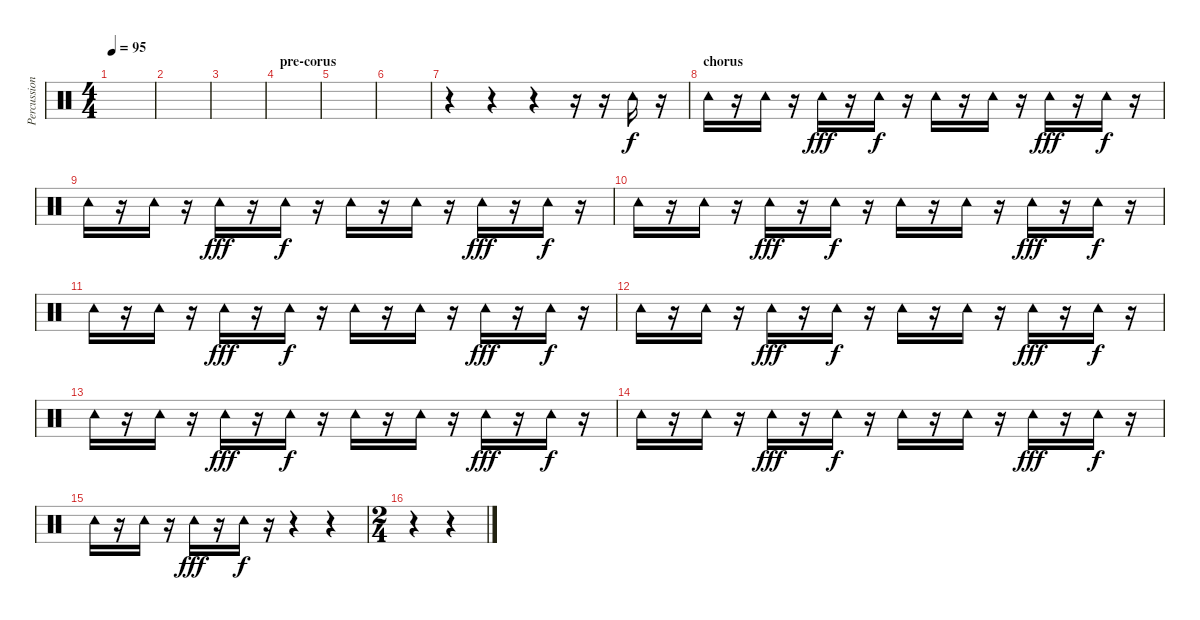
\track ("Percussion" "Percussion") {instrument percussion}
\staff {score}
\articulation defaults
\ts (4 4)
\tempo 95
\clef neutral
\ks c
|
|
|
\section ("" "pre-corus")
|
|
|
r.4 r.4 r.4 r.16 r.16 "Tambourine (hit)".16 r.16 |
\section ("" "chorus")
"Tambourine (hit)".16{dy f} r.16 "Tambourine (hit)".16 r.16 "Tambourine (hit)".16{dy fff} r.16 "Tambourine (hit)".16{dy f} r.16 "Tambourine (hit)".16 r.16 "Tambourine (hit)".16 r.16 "Tambourine (hit)".16{dy fff} r.16 "Tambourine (hit)".16{dy f} r.16 |
"Tambourine (hit)".16 r.16 "Tambourine (hit)".16 r.16 "Tambourine (hit)".16{dy fff} r.16 "Tambourine (hit)".16{dy f} r.16 "Tambourine (hit)".16 r.16 "Tambourine (hit)".16 r.16 "Tambourine (hit)".16{dy fff} r.16 "Tambourine (hit)".16{dy f} r.16 |
"Tambourine (hit)".16 r.16 "Tambourine (hit)".16 r.16 "Tambourine (hit)".16{dy fff} r.16 "Tambourine (hit)".16{dy f} r.16 "Tambourine (hit)".16 r.16 "Tambourine (hit)".16 r.16 "Tambourine (hit)".16{dy fff} r.16 "Tambourine (hit)".16{dy f} r.16 |
"Tambourine (hit)".16 r.16 "Tambourine (hit)".16 r.16 "Tambourine (hit)".16{dy fff} r.16 "Tambourine (hit)".16{dy f} r.16 "Tambourine (hit)".16 r.16 "Tambourine (hit)".16 r.16 "Tambourine (hit)".16{dy fff} r.16 "Tambourine (hit)".16{dy f} r.16 |
"Tambourine (hit)".16 r.16 "Tambourine (hit)".16 r.16 "Tambourine (hit)".16{dy fff} r.16 "Tambourine (hit)".16{dy f} r.16 "Tambourine (hit)".16 r.16 "Tambourine (hit)".16 r.16 "Tambourine (hit)".16{dy fff} r.16 "Tambourine (hit)".16{dy f} r.16 |
"Tambourine (hit)".16 r.16 "Tambourine (hit)".16 r.16 "Tambourine (hit)".16{dy fff} r.16 "Tambourine (hit)".16{dy f} r.16 "Tambourine (hit)".16 r.16 "Tambourine (hit)".16 r.16 "Tambourine (hit)".16{dy fff} r.16 "Tambourine (hit)".16{dy f} r.16 |
"Tambourine (hit)".16 r.16 "Tambourine (hit)".16 r.16 "Tambourine (hit)".16{dy fff} r.16 "Tambourine (hit)".16{dy f} r.16 "Tambourine (hit)".16 r.16 "Tambourine (hit)".16 r.16 "Tambourine (hit)".16{dy fff} r.16 "Tambourine (hit)".16{dy f} r.16 |
"Tambourine (hit)".16 r.16 "Tambourine (hit)".16 r.16 "Tambourine (hit)".16{dy fff} r.16 "Tambourine (hit)".16{dy f} r.16 r.4 r.4 |
\ts (2 4)
r.4 r.4
